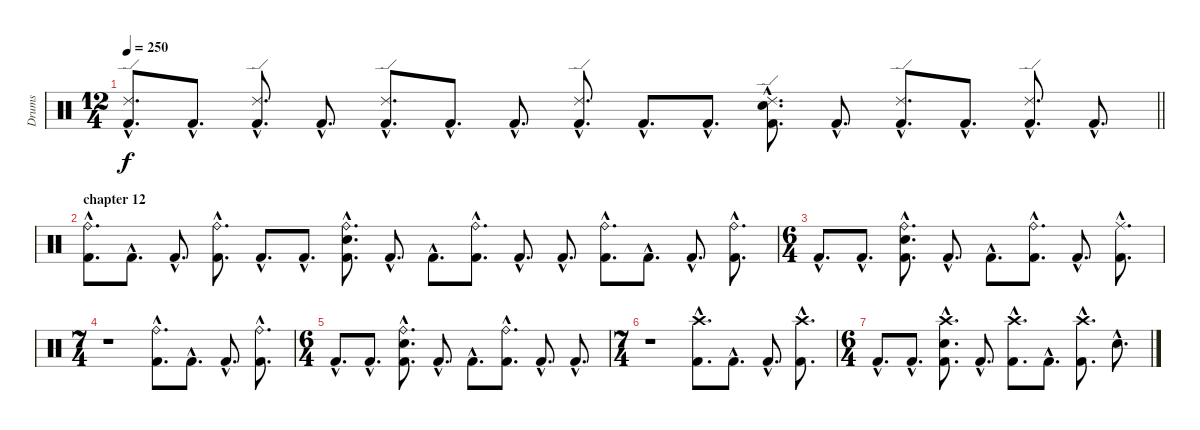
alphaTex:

\track ("Drums" "Drums") {instrument percussion}
\staff {score}
\articulation defaults
\ts (12 4)
\tempo 250
\clef neutral
\barLineRight lightlight
\ks c
("Ride (edge) 2"{hac} "Kick (hit) 2"{hac}).8{d dy f} "Kick (hit) 2"{hac}.8{d} ("Ride (edge) 2"{hac} "Kick (hit) 2"{hac}).8{d} "Kick (hit) 2"{hac}.8{d} ("Ride (edge) 2"{hac} "Kick (hit) 2"{hac}).8{d} "Kick (hit) 2"{hac}.8{d} "Kick (hit) 2"{hac}.8{d} ("Ride (edge) 2"{hac} "Kick (hit) 2"{hac}).8{d} "Kick (hit) 2"{hac}.8{d} "Kick (hit) 2"{hac}.8{d} ("Ride (edge) 2"{hac} "Snare (hit) 2"{hac} "Kick (hit) 2"{hac}).8{d} "Kick (hit) 2"{hac}.8{d} ("Ride (edge) 2"{hac} "Kick (hit) 2"{hac}).8{d} "Kick (hit) 2"{hac}.8{d} ("Ride (edge) 2"{hac} "Kick (hit) 2"{hac}).8{d} "Kick (hit) 2"{hac}.8{d} |
\section ("" "chapter 12")
("Ride (bell)"{hac} "Kick (hit) 2"{hac}).8{d} "Kick (hit) 2"{hac}.8{d} "Kick (hit) 2"{hac}.8{d} ("Ride (bell)"{hac} "Kick (hit) 2"{hac}).8{d} "Kick (hit) 2"{hac}.8{d} "Kick (hit) 2"{hac}.8{d} ("Ride (bell)"{hac} "Snare (hit) 2"{hac} "Kick (hit) 2"{hac}).8{d} "Kick (hit) 2"{hac}.8{d} "Kick (hit) 2"{hac}.8{d} ("Ride (bell)"{hac} "Kick (hit) 2"{hac}).8{d} "Kick (hit) 2"{hac}.8{d} "Kick (hit) 2"{hac}.8{d} ("Ride (bell)"{hac} "Kick (hit) 2"{hac}).8{d} "Kick (hit) 2"{hac}.8{d} "Kick (hit) 2"{hac}.8{d} ("Ride (bell)"{hac} "Kick (hit) 2"{hac}).8{d} |
\ts (6 4)
"Kick (hit) 2"{hac}.8{d} "Kick (hit) 2"{hac}.8{d} ("Ride (bell)"{hac} "Snare (hit) 2"{hac} "Kick (hit) 2"{hac}).8{d} "Kick (hit) 2"{hac}.8{d} "Kick (hit) 2"{hac}.8{d} ("Ride (bell)"{hac} "Kick (hit) 2"{hac}).8{d} "Kick (hit) 2"{hac}.8{d} ("Ride (middle)"{hac} "Kick (hit) 2"{hac}).8{d} |
\ts (7 4)
r.1 ("Ride (bell)"{hac} "Kick (hit) 2"{hac}).8{d} "Kick (hit) 2"{hac}.8{d} "Kick (hit) 2"{hac}.8{d} ("Ride (bell)"{hac} "Kick (hit) 2"{hac}).8{d} |
\ts (6 4)
"Kick (hit) 2"{hac}.8{d} "Kick (hit) 2"{hac}.8{d} ("Ride (bell)"{hac} "Snare (hit) 2"{hac} "Kick (hit) 2"{hac}).8{d} "Kick (hit) 2"{hac}.8{d} "Kick (hit) 2"{hac}.8{d} ("Ride (bell)"{hac} "Kick (hit) 2"{hac}).8{d} "Kick (hit) 2"{hac}.8{d} "Kick (hit) 2"{hac}.8{d} |
\ts (7 4)
r.1 ("Crash high (hit)"{hac} "Kick (hit) 2"{hac}).8{d} "Kick (hit) 2"{hac}.8{d} "Kick (hit) 2"{hac}.8{d} ("Crash high (hit)"{hac} "Kick (hit) 2"{hac}).8{d} |
\ts (6 4)
"Kick (hit) 2"{hac}.8{d} "Kick (hit) 2"{hac}.8{d} ("Crash high (hit)"{hac} "Snare (hit) 2"{hac} "Kick (hit) 2"{hac}).8{d} "Kick (hit) 2"{hac}.8{d} ("Crash high (hit)"{hac} "Kick (hit) 2"{hac}).8{d} "Kick (hit) 2"{hac}.8{d} ("Crash high (hit)"{hac} "Kick (hit) 2"{hac}).8{d} "Snare (hit) 2"{hac}.8{d}
